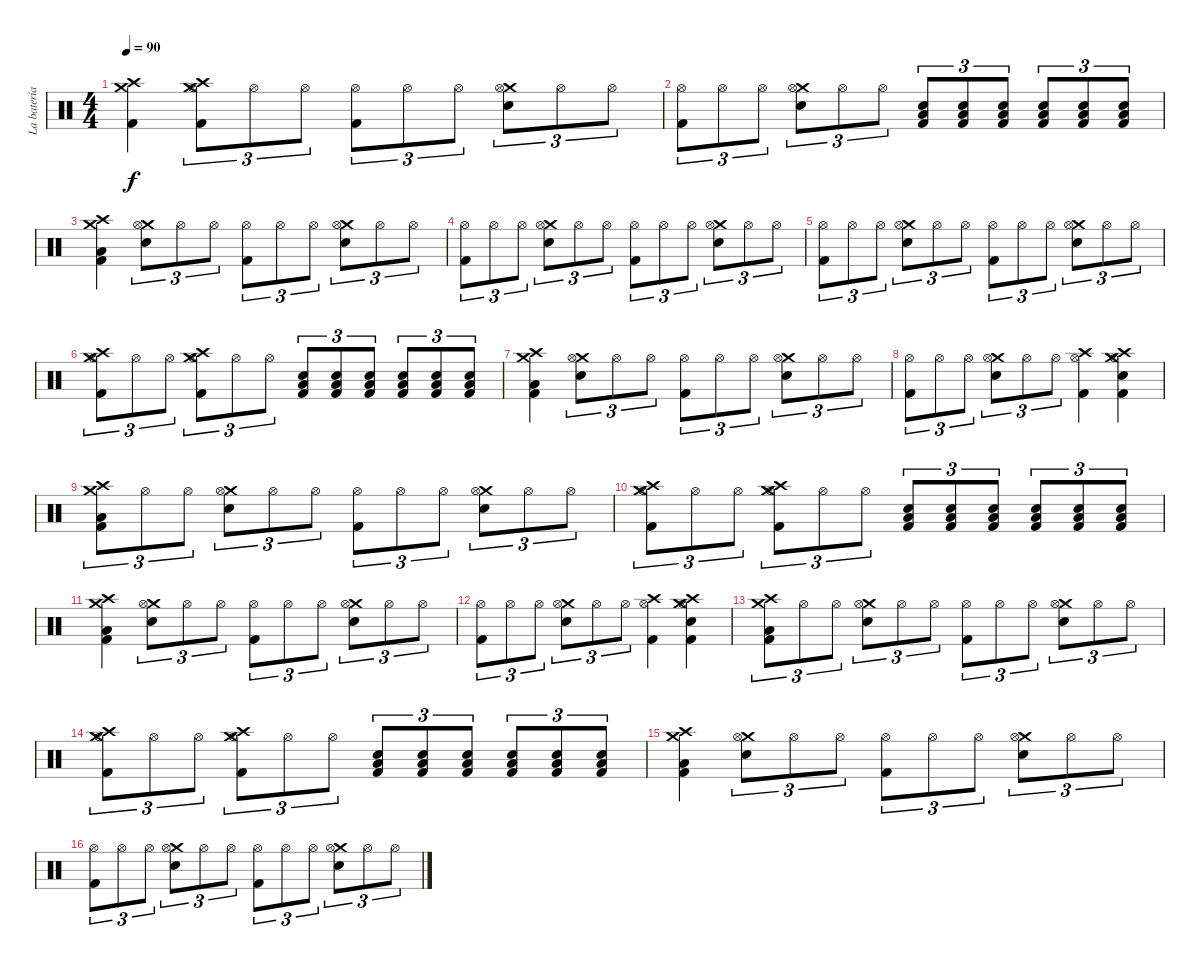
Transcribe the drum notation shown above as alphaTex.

\track ("La batería (con dos huevos xD)" "La batería") {instrument percussion}
\staff {score}
\articulation defaults
\ts (4 4)
\tempo 90
\clef neutral
\ks c
("Crash medium (hit)" "Crash high (hit)" "Kick (hit) 2").4{dy f} ("Crash medium (hit)" "Hi-Hat (open)" "Crash high (hit)" "Kick (hit) 2").8{tu (3 2)} "Hi-Hat (open)".8{tu (3 2)} "Hi-Hat (open)".8{tu (3 2)} ("Hi-Hat (open)" "Kick (hit) 2").8{tu (3 2)} "Hi-Hat (open)".8{tu (3 2)} "Hi-Hat (open)".8{tu (3 2)} ("Crash medium (hit)" "Hi-Hat (open)" "Electric Snare (hit)").8{tu (3 2)} "Hi-Hat (open)".8{tu (3 2)} "Hi-Hat (open)".8{tu (3 2)} |
("Hi-Hat (open)" "Kick (hit) 2").8{tu (3 2)} "Hi-Hat (open)".8{tu (3 2)} "Hi-Hat (open)".8{tu (3 2)} ("Crash medium (hit)" "Hi-Hat (open)" "Electric Snare (hit)").8{tu (3 2)} "Hi-Hat (open)".8{tu (3 2)} "Hi-Hat (open)".8{tu (3 2)} ("Low Floor Tom (hit)" "Electric Snare (hit)" "Kick (hit) 2").8{tu (3 2)} ("Low Floor Tom (hit)" "Electric Snare (hit)" "Kick (hit) 2").8{tu (3 2)} ("Low Floor Tom (hit)" "Electric Snare (hit)" "Kick (hit) 2").8{tu (3 2)} ("Low Floor Tom (hit)" "Electric Snare (hit)" "Kick (hit) 2").8{tu (3 2)} ("Low Floor Tom (hit)" "Electric Snare (hit)" "Kick (hit) 2").8{tu (3 2)} ("Low Floor Tom (hit)" "Electric Snare (hit)" "Kick (hit) 2").8{tu (3 2)} |
("Crash medium (hit)" "Crash high (hit)" "Low Floor Tom (hit)" "Kick (hit) 2").4 ("Crash medium (hit)" "Hi-Hat (open)" "Electric Snare (hit)").8{tu (3 2)} "Hi-Hat (open)".8{tu (3 2)} "Hi-Hat (open)".8{tu (3 2)} ("Hi-Hat (open)" "Kick (hit) 2").8{tu (3 2)} "Hi-Hat (open)".8{tu (3 2)} "Hi-Hat (open)".8{tu (3 2)} ("Crash medium (hit)" "Hi-Hat (open)" "Electric Snare (hit)").8{tu (3 2)} "Hi-Hat (open)".8{tu (3 2)} "Hi-Hat (open)".8{tu (3 2)} |
("Hi-Hat (open)" "Kick (hit) 2").8{tu (3 2)} "Hi-Hat (open)".8{tu (3 2)} "Hi-Hat (open)".8{tu (3 2)} ("Crash medium (hit)" "Hi-Hat (open)" "Electric Snare (hit)").8{tu (3 2)} "Hi-Hat (open)".8{tu (3 2)} "Hi-Hat (open)".8{tu (3 2)} ("Hi-Hat (open)" "Kick (hit) 2").8{tu (3 2)} "Hi-Hat (open)".8{tu (3 2)} "Hi-Hat (open)".8{tu (3 2)} ("Crash medium (hit)" "Hi-Hat (open)" "Electric Snare (hit)").8{tu (3 2)} "Hi-Hat (open)".8{tu (3 2)} "Hi-Hat (open)".8{tu (3 2)} |
("Hi-Hat (open)" "Kick (hit) 2").8{tu (3 2)} "Hi-Hat (open)".8{tu (3 2)} "Hi-Hat (open)".8{tu (3 2)} ("Crash medium (hit)" "Hi-Hat (open)" "Electric Snare (hit)").8{tu (3 2)} "Hi-Hat (open)".8{tu (3 2)} "Hi-Hat (open)".8{tu (3 2)} ("Hi-Hat (open)" "Kick (hit) 2").8{tu (3 2)} "Hi-Hat (open)".8{tu (3 2)} "Hi-Hat (open)".8{tu (3 2)} ("Crash medium (hit)" "Hi-Hat (open)" "Electric Snare (hit)").8{tu (3 2)} "Hi-Hat (open)".8{tu (3 2)} "Hi-Hat (open)".8{tu (3 2)} |
("Crash medium (hit)" "Crash high (hit)" "Hi-Hat (open)" "Kick (hit) 2").8{tu (3 2)} "Hi-Hat (open)".8{tu (3 2)} "Hi-Hat (open)".8{tu (3 2)} ("Crash medium (hit)" "Hi-Hat (open)" "Crash high (hit)" "Kick (hit) 2").8{tu (3 2)} "Hi-Hat (open)".8{tu (3 2)} "Hi-Hat (open)".8{tu (3 2)} ("Low Floor Tom (hit)" "Electric Snare (hit)" "Kick (hit) 2").8{tu (3 2)} ("Low Floor Tom (hit)" "Electric Snare (hit)" "Kick (hit) 2").8{tu (3 2)} ("Low Floor Tom (hit)" "Electric Snare (hit)" "Kick (hit) 2").8{tu (3 2)} ("Low Floor Tom (hit)" "Electric Snare (hit)" "Kick (hit) 2").8{tu (3 2)} ("Low Floor Tom (hit)" "Electric Snare (hit)" "Kick (hit) 2").8{tu (3 2)} ("Low Floor Tom (hit)" "Electric Snare (hit)" "Kick (hit) 2").8{tu (3 2)} |
("Crash medium (hit)" "Crash high (hit)" "Low Floor Tom (hit)" "Kick (hit) 2").4 ("Crash medium (hit)" "Hi-Hat (open)" "Electric Snare (hit)").8{tu (3 2)} "Hi-Hat (open)".8{tu (3 2)} "Hi-Hat (open)".8{tu (3 2)} ("Hi-Hat (open)" "Kick (hit) 2").8{tu (3 2)} "Hi-Hat (open)".8{tu (3 2)} "Hi-Hat (open)".8{tu (3 2)} ("Crash medium (hit)" "Hi-Hat (open)" "Electric Snare (hit)").8{tu (3 2)} "Hi-Hat (open)".8{tu (3 2)} "Hi-Hat (open)".8{tu (3 2)} |
("Hi-Hat (open)" "Kick (hit) 2").8{tu (3 2)} "Hi-Hat (open)".8{tu (3 2)} "Hi-Hat (open)".8{tu (3 2)} ("Crash medium (hit)" "Hi-Hat (open)" "Electric Snare (hit)").8{tu (3 2)} "Hi-Hat (open)".8{tu (3 2)} "Hi-Hat (open)".8{tu (3 2)} ("Hi-Hat (open)" "Crash high (hit)" "Kick (hit) 2").4 ("Crash medium (hit)" "Crash high (hit)" "Hi-Hat (open)" "Electric Snare (hit)" "Kick (hit) 2").4 |
("Crash medium (hit)" "Crash high (hit)" "Low Floor Tom (hit)" "Kick (hit) 2").8{tu (3 2)} "Hi-Hat (open)".8{tu (3 2)} "Hi-Hat (open)".8{tu (3 2)} ("Crash medium (hit)" "Hi-Hat (open)" "Electric Snare (hit)").8{tu (3 2)} "Hi-Hat (open)".8{tu (3 2)} "Hi-Hat (open)".8{tu (3 2)} ("Hi-Hat (open)" "Kick (hit) 2").8{tu (3 2)} "Hi-Hat (open)".8{tu (3 2)} "Hi-Hat (open)".8{tu (3 2)} ("Crash medium (hit)" "Hi-Hat (open)" "Electric Snare (hit)").8{tu (3 2)} "Hi-Hat (open)".8{tu (3 2)} "Hi-Hat (open)".8{tu (3 2)} |
("Crash medium (hit)" "Crash high (hit)" "Hi-Hat (open)" "Kick (hit) 2").8{tu (3 2)} "Hi-Hat (open)".8{tu (3 2)} "Hi-Hat (open)".8{tu (3 2)} ("Crash medium (hit)" "Hi-Hat (open)" "Crash high (hit)" "Kick (hit) 2").8{tu (3 2)} "Hi-Hat (open)".8{tu (3 2)} "Hi-Hat (open)".8{tu (3 2)} ("Low Floor Tom (hit)" "Electric Snare (hit)" "Kick (hit) 2").8{tu (3 2)} ("Low Floor Tom (hit)" "Electric Snare (hit)" "Kick (hit) 2").8{tu (3 2)} ("Low Floor Tom (hit)" "Electric Snare (hit)" "Kick (hit) 2").8{tu (3 2)} ("Low Floor Tom (hit)" "Electric Snare (hit)" "Kick (hit) 2").8{tu (3 2)} ("Low Floor Tom (hit)" "Electric Snare (hit)" "Kick (hit) 2").8{tu (3 2)} ("Low Floor Tom (hit)" "Electric Snare (hit)" "Kick (hit) 2").8{tu (3 2)} |
("Crash medium (hit)" "Crash high (hit)" "Low Floor Tom (hit)" "Kick (hit) 2").4 ("Crash medium (hit)" "Hi-Hat (open)" "Electric Snare (hit)").8{tu (3 2)} "Hi-Hat (open)".8{tu (3 2)} "Hi-Hat (open)".8{tu (3 2)} ("Hi-Hat (open)" "Kick (hit) 2").8{tu (3 2)} "Hi-Hat (open)".8{tu (3 2)} "Hi-Hat (open)".8{tu (3 2)} ("Crash medium (hit)" "Hi-Hat (open)" "Electric Snare (hit)").8{tu (3 2)} "Hi-Hat (open)".8{tu (3 2)} "Hi-Hat (open)".8{tu (3 2)} |
("Hi-Hat (open)" "Kick (hit) 2").8{tu (3 2)} "Hi-Hat (open)".8{tu (3 2)} "Hi-Hat (open)".8{tu (3 2)} ("Crash medium (hit)" "Hi-Hat (open)" "Electric Snare (hit)").8{tu (3 2)} "Hi-Hat (open)".8{tu (3 2)} "Hi-Hat (open)".8{tu (3 2)} ("Hi-Hat (open)" "Crash high (hit)" "Kick (hit) 2").4 ("Crash medium (hit)" "Crash high (hit)" "Hi-Hat (open)" "Electric Snare (hit)" "Kick (hit) 2").4 |
("Crash medium (hit)" "Crash high (hit)" "Low Floor Tom (hit)" "Kick (hit) 2").8{tu (3 2)} "Hi-Hat (open)".8{tu (3 2)} "Hi-Hat (open)".8{tu (3 2)} ("Crash medium (hit)" "Hi-Hat (open)" "Electric Snare (hit)").8{tu (3 2)} "Hi-Hat (open)".8{tu (3 2)} "Hi-Hat (open)".8{tu (3 2)} ("Hi-Hat (open)" "Kick (hit) 2").8{tu (3 2)} "Hi-Hat (open)".8{tu (3 2)} "Hi-Hat (open)".8{tu (3 2)} ("Crash medium (hit)" "Hi-Hat (open)" "Electric Snare (hit)").8{tu (3 2)} "Hi-Hat (open)".8{tu (3 2)} "Hi-Hat (open)".8{tu (3 2)} |
("Crash medium (hit)" "Crash high (hit)" "Hi-Hat (open)" "Kick (hit) 2").8{tu (3 2)} "Hi-Hat (open)".8{tu (3 2)} "Hi-Hat (open)".8{tu (3 2)} ("Crash medium (hit)" "Hi-Hat (open)" "Crash high (hit)" "Kick (hit) 2").8{tu (3 2)} "Hi-Hat (open)".8{tu (3 2)} "Hi-Hat (open)".8{tu (3 2)} ("Low Floor Tom (hit)" "Electric Snare (hit)" "Kick (hit) 2").8{tu (3 2)} ("Low Floor Tom (hit)" "Electric Snare (hit)" "Kick (hit) 2").8{tu (3 2)} ("Low Floor Tom (hit)" "Electric Snare (hit)" "Kick (hit) 2").8{tu (3 2)} ("Low Floor Tom (hit)" "Electric Snare (hit)" "Kick (hit) 2").8{tu (3 2)} ("Low Floor Tom (hit)" "Electric Snare (hit)" "Kick (hit) 2").8{tu (3 2)} ("Low Floor Tom (hit)" "Electric Snare (hit)" "Kick (hit) 2").8{tu (3 2)} |
("Crash medium (hit)" "Crash high (hit)" "Low Floor Tom (hit)" "Kick (hit) 2").4 ("Crash medium (hit)" "Hi-Hat (open)" "Electric Snare (hit)").8{tu (3 2)} "Hi-Hat (open)".8{tu (3 2)} "Hi-Hat (open)".8{tu (3 2)} ("Hi-Hat (open)" "Kick (hit) 2").8{tu (3 2)} "Hi-Hat (open)".8{tu (3 2)} "Hi-Hat (open)".8{tu (3 2)} ("Crash medium (hit)" "Hi-Hat (open)" "Electric Snare (hit)").8{tu (3 2)} "Hi-Hat (open)".8{tu (3 2)} "Hi-Hat (open)".8{tu (3 2)} |
("Hi-Hat (open)" "Kick (hit) 2").8{tu (3 2)} "Hi-Hat (open)".8{tu (3 2)} "Hi-Hat (open)".8{tu (3 2)} ("Crash medium (hit)" "Hi-Hat (open)" "Electric Snare (hit)").8{tu (3 2)} "Hi-Hat (open)".8{tu (3 2)} "Hi-Hat (open)".8{tu (3 2)} ("Hi-Hat (open)" "Kick (hit) 2").8{tu (3 2)} "Hi-Hat (open)".8{tu (3 2)} "Hi-Hat (open)".8{tu (3 2)} ("Crash medium (hit)" "Hi-Hat (open)" "Electric Snare (hit)").8{tu (3 2)} "Hi-Hat (open)".8{tu (3 2)} "Hi-Hat (open)".8{tu (3 2)}
